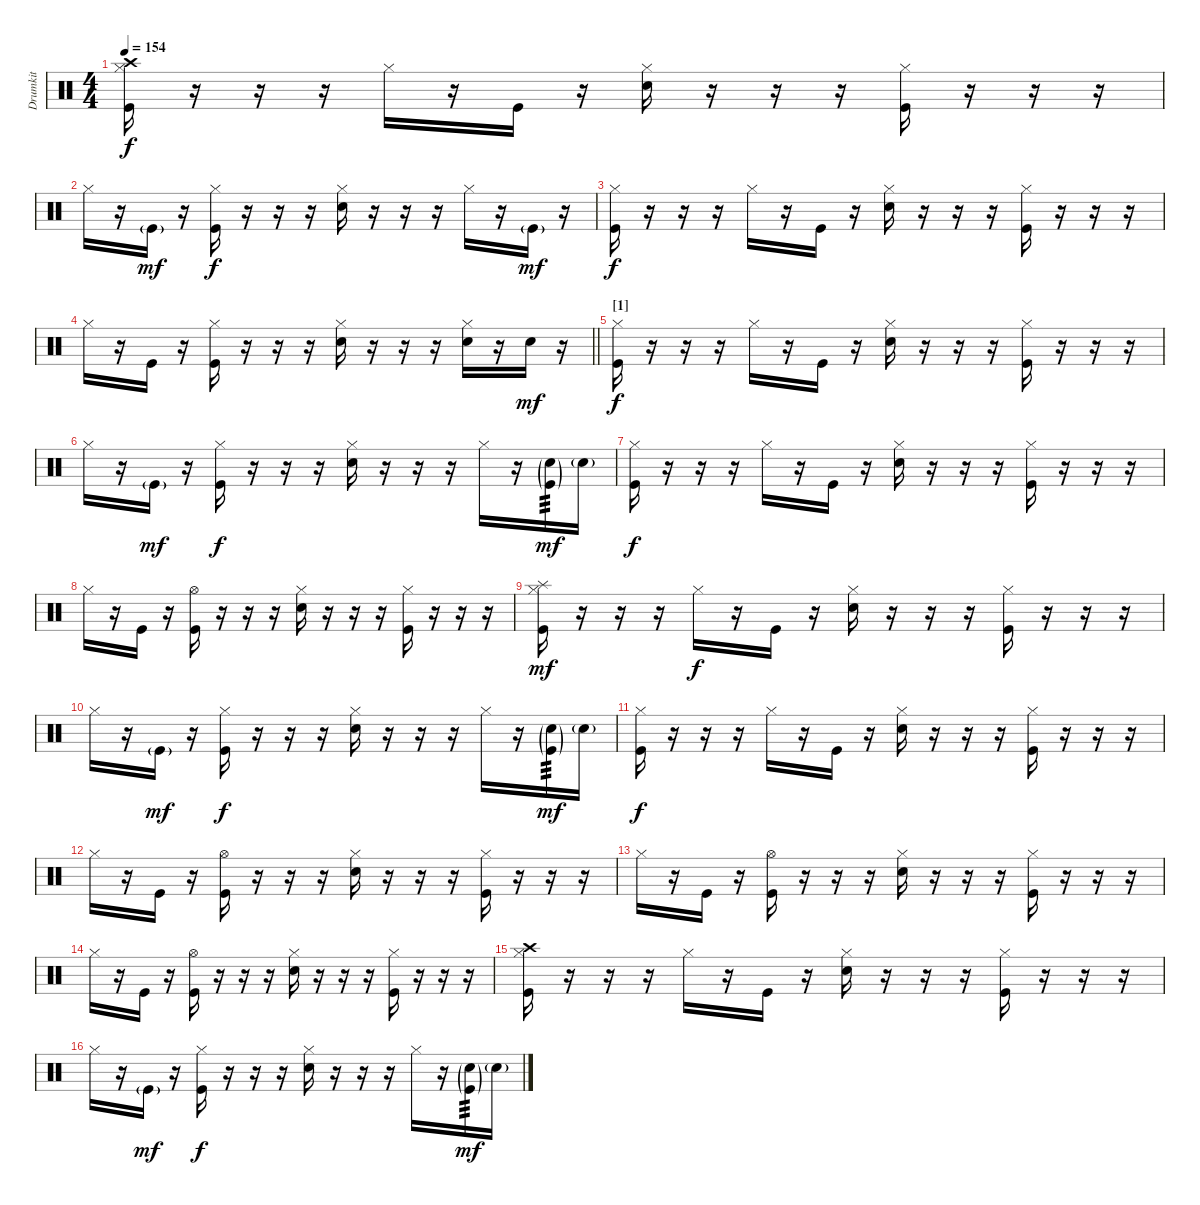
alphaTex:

\track ("Drumkit" "Drumkit") {instrument percussion}
\staff {score}
\articulation defaults
\ts (4 4)
\tempo 154
\clef neutral
\ks c
("Crash high (hit)" "Hi-Hat (closed)" "Kick (hit)").16{dy f} r.16 r.16 r.16 "Hi-Hat (closed)".16 r.16 "Kick (hit)".16 r.16 ("Hi-Hat (closed)" "Snare (hit) 2").16 r.16 r.16 r.16 ("Hi-Hat (closed)" "Kick (hit)").16 r.16 r.16 r.16 |
"Hi-Hat (closed)".16 r.16 "Kick (hit)"{g}.16{dy mf} r.16 ("Hi-Hat (closed)" "Kick (hit)").16{dy f} r.16 r.16 r.16 ("Hi-Hat (closed)" "Snare (hit) 2").16 r.16 r.16 r.16 "Hi-Hat (closed)".16 r.16 "Kick (hit)"{g}.16{dy mf} r.16 |
("Hi-Hat (closed)" "Kick (hit)").16{dy f} r.16 r.16 r.16 "Hi-Hat (closed)".16 r.16 "Kick (hit)".16 r.16 ("Hi-Hat (closed)" "Snare (hit) 2").16 r.16 r.16 r.16 ("Hi-Hat (closed)" "Kick (hit)").16 r.16 r.16 r.16 |
\barLineRight lightlight "Hi-Hat (closed)".16
r.16 "Kick (hit)".16 r.16 ("Hi-Hat (closed)" "Kick (hit)").16 r.16 r.16 r.16 ("Hi-Hat (closed)" "Snare (hit) 2").16 r.16 r.16 r.16 ("Hi-Hat (closed)" "Snare (hit) 2").16 r.16 "Snare (hit) 2".16{dy mf} r.16 |
\section ("" "[1]")
("Hi-Hat (closed)" "Kick (hit)").16{dy f} r.16 r.16 r.16 "Hi-Hat (closed)".16 r.16 "Kick (hit)".16 r.16 ("Hi-Hat (closed)" "Snare (hit) 2").16 r.16 r.16 r.16 ("Hi-Hat (closed)" "Kick (hit)").16 r.16 r.16 r.16 |
"Hi-Hat (closed)".16 r.16 "Kick (hit)"{g}.16{dy mf} r.16 ("Hi-Hat (closed)" "Kick (hit)").16{dy f} r.16 r.16 r.16 ("Hi-Hat (closed)" "Snare (hit) 2").16 r.16 r.16 r.16 "Hi-Hat (closed)".16 r.16 ("Snare (hit) 2"{g} "Kick (hit)"{g}).16{tp 3 dy mf} "Snare (hit) 2"{g}.16 |
("Hi-Hat (closed)" "Kick (hit)").16{dy f} r.16 r.16 r.16 "Hi-Hat (closed)".16 r.16 "Kick (hit)".16 r.16 ("Hi-Hat (closed)" "Snare (hit) 2").16 r.16 r.16 r.16 ("Hi-Hat (closed)" "Kick (hit)").16 r.16 r.16 r.16 |
"Hi-Hat (closed)".16 r.16 "Kick (hit)".16 r.16 ("Hi-Hat (open)" "Kick (hit)").16 r.16 r.16 r.16 ("Hi-Hat (closed)" "Snare (hit) 2").16 r.16 r.16 r.16 ("Hi-Hat (closed)" "Kick (hit)").16 r.16 r.16 r.16 |
("Splash (hit)" "Hi-Hat (closed)" "Kick (hit)").16{dy mf} r.16 r.16 r.16 "Hi-Hat (closed)".16{dy f} r.16 "Kick (hit)".16 r.16 ("Hi-Hat (closed)" "Snare (hit) 2").16 r.16 r.16 r.16 ("Hi-Hat (closed)" "Kick (hit)").16 r.16 r.16 r.16 |
"Hi-Hat (closed)".16 r.16 "Kick (hit)"{g}.16{dy mf} r.16 ("Hi-Hat (closed)" "Kick (hit)").16{dy f} r.16 r.16 r.16 ("Hi-Hat (closed)" "Snare (hit) 2").16 r.16 r.16 r.16 "Hi-Hat (closed)".16 r.16 ("Snare (hit) 2"{g} "Kick (hit)"{g}).16{tp 3 dy mf} "Snare (hit) 2"{g}.16 |
("Hi-Hat (closed)" "Kick (hit)").16{dy f} r.16 r.16 r.16 "Hi-Hat (closed)".16 r.16 "Kick (hit)".16 r.16 ("Hi-Hat (closed)" "Snare (hit) 2").16 r.16 r.16 r.16 ("Hi-Hat (closed)" "Kick (hit)").16 r.16 r.16 r.16 |
"Hi-Hat (closed)".16 r.16 "Kick (hit)".16 r.16 ("Hi-Hat (open)" "Kick (hit)").16 r.16 r.16 r.16 ("Hi-Hat (closed)" "Snare (hit) 2").16 r.16 r.16 r.16 ("Hi-Hat (closed)" "Kick (hit)").16 r.16 r.16 r.16 |
"Hi-Hat (closed)".16 r.16 "Kick (hit)".16 r.16 ("Hi-Hat (open)" "Kick (hit)").16 r.16 r.16 r.16 ("Hi-Hat (closed)" "Snare (hit) 2").16 r.16 r.16 r.16 ("Hi-Hat (closed)" "Kick (hit)").16 r.16 r.16 r.16 |
"Hi-Hat (closed)".16 r.16 "Kick (hit)".16 r.16 ("Hi-Hat (open)" "Kick (hit)").16 r.16 r.16 r.16 ("Hi-Hat (closed)" "Snare (hit) 2").16 r.16 r.16 r.16 ("Hi-Hat (closed)" "Kick (hit)").16 r.16 r.16 r.16 |
("Crash high (hit)" "Hi-Hat (closed)" "Kick (hit)").16 r.16 r.16 r.16 "Hi-Hat (closed)".16 r.16 "Kick (hit)".16 r.16 ("Hi-Hat (closed)" "Snare (hit) 2").16 r.16 r.16 r.16 ("Hi-Hat (closed)" "Kick (hit)").16 r.16 r.16 r.16 |
"Hi-Hat (closed)".16 r.16 "Kick (hit)"{g}.16{dy mf} r.16 ("Hi-Hat (closed)" "Kick (hit)").16{dy f} r.16 r.16 r.16 ("Hi-Hat (closed)" "Snare (hit) 2").16 r.16 r.16 r.16 "Hi-Hat (closed)".16 r.16 ("Snare (hit) 2"{g} "Kick (hit)"{g}).16{tp 3 dy mf} "Snare (hit) 2"{g}.16
